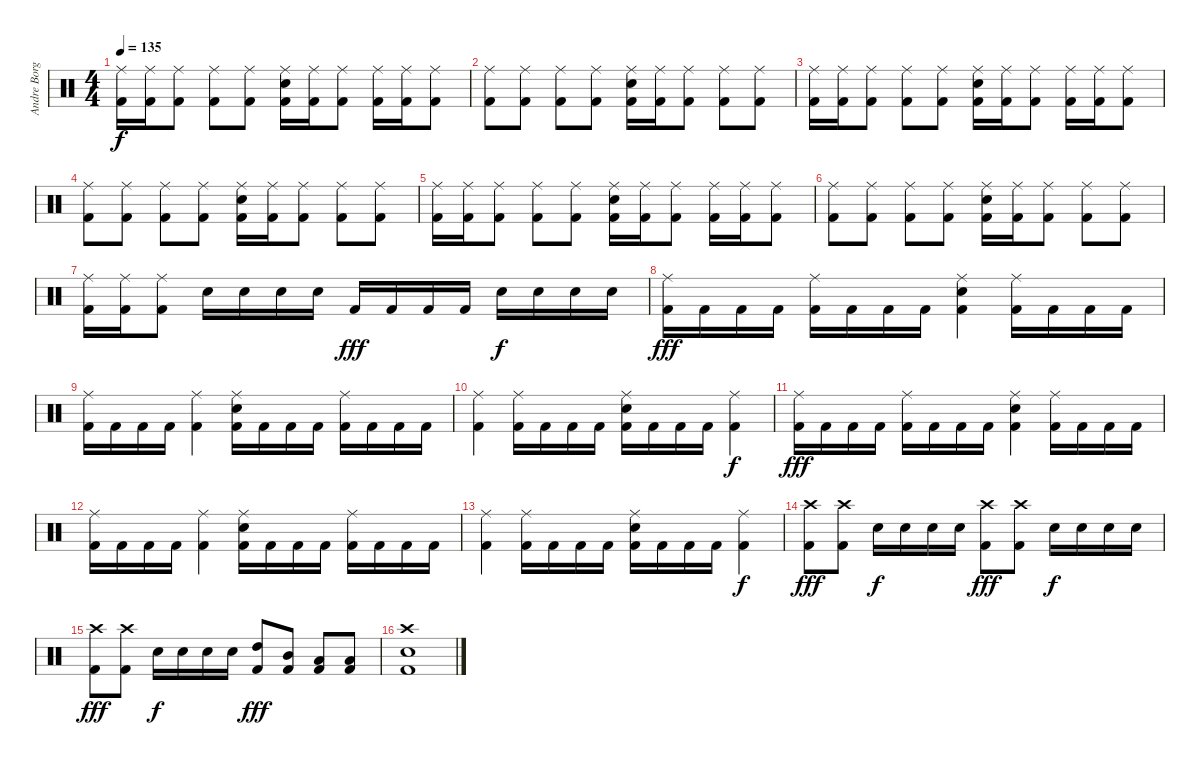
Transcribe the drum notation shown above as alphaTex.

\track ("Andre Borgman" "Andre Borg") {instrument percussion}
\staff {score}
\articulation defaults
\ts (4 4)
\tempo 135
\clef neutral
\ks c
("Ride (middle)" "Kick (hit) 2").16{dy f} ("Ride (middle)" "Kick (hit) 2").16 ("Ride (middle)" "Kick (hit) 2").8 ("Ride (middle)" "Kick (hit) 2").8 ("Ride (middle)" "Kick (hit) 2").8 ("Ride (middle)" "Snare (hit) 2" "Kick (hit) 2").16 ("Ride (middle)" "Kick (hit) 2").16 ("Ride (middle)" "Kick (hit) 2").8 ("Ride (middle)" "Kick (hit) 2").16 ("Ride (middle)" "Kick (hit) 2").16 ("Ride (middle)" "Kick (hit) 2").8 |
("Ride (middle)" "Kick (hit) 2").8 ("Ride (middle)" "Kick (hit) 2").8 ("Ride (middle)" "Kick (hit) 2").8 ("Ride (middle)" "Kick (hit) 2").8 ("Ride (middle)" "Snare (hit) 2" "Kick (hit) 2").16 ("Ride (middle)" "Kick (hit) 2").16 ("Ride (middle)" "Kick (hit) 2").8 ("Ride (middle)" "Kick (hit) 2").8 ("Ride (middle)" "Kick (hit) 2").8 |
("Ride (middle)" "Kick (hit) 2").16 ("Ride (middle)" "Kick (hit) 2").16 ("Ride (middle)" "Kick (hit) 2").8 ("Ride (middle)" "Kick (hit) 2").8 ("Ride (middle)" "Kick (hit) 2").8 ("Ride (middle)" "Snare (hit) 2" "Kick (hit) 2").16 ("Ride (middle)" "Kick (hit) 2").16 ("Ride (middle)" "Kick (hit) 2").8 ("Ride (middle)" "Kick (hit) 2").16 ("Ride (middle)" "Kick (hit) 2").16 ("Ride (middle)" "Kick (hit) 2").8 |
("Ride (middle)" "Kick (hit) 2").8 ("Ride (middle)" "Kick (hit) 2").8 ("Ride (middle)" "Kick (hit) 2").8 ("Ride (middle)" "Kick (hit) 2").8 ("Ride (middle)" "Snare (hit) 2" "Kick (hit) 2").16 ("Ride (middle)" "Kick (hit) 2").16 ("Ride (middle)" "Kick (hit) 2").8 ("Ride (middle)" "Kick (hit) 2").8 ("Ride (middle)" "Kick (hit) 2").8 |
("Ride (middle)" "Kick (hit) 2").16 ("Ride (middle)" "Kick (hit) 2").16 ("Ride (middle)" "Kick (hit) 2").8 ("Ride (middle)" "Kick (hit) 2").8 ("Ride (middle)" "Kick (hit) 2").8 ("Ride (middle)" "Snare (hit) 2" "Kick (hit) 2").16 ("Ride (middle)" "Kick (hit) 2").16 ("Ride (middle)" "Kick (hit) 2").8 ("Ride (middle)" "Kick (hit) 2").16 ("Ride (middle)" "Kick (hit) 2").16 ("Ride (middle)" "Kick (hit) 2").8 |
("Ride (middle)" "Kick (hit) 2").8 ("Ride (middle)" "Kick (hit) 2").8 ("Ride (middle)" "Kick (hit) 2").8 ("Ride (middle)" "Kick (hit) 2").8 ("Ride (middle)" "Snare (hit) 2" "Kick (hit) 2").16 ("Ride (middle)" "Kick (hit) 2").16 ("Ride (middle)" "Kick (hit) 2").8 ("Ride (middle)" "Kick (hit) 2").8 ("Ride (middle)" "Kick (hit) 2").8 |
("Ride (middle)" "Kick (hit) 2").16 ("Ride (middle)" "Kick (hit) 2").16 ("Ride (middle)" "Kick (hit) 2").8 "Snare (hit) 2".16 "Snare (hit) 2".16 "Snare (hit) 2".16 "Snare (hit) 2".16 "Kick (hit) 2".16{dy fff} "Kick (hit) 2".16 "Kick (hit) 2".16 "Kick (hit) 2".16 "Snare (hit) 2".16{dy f} "Snare (hit) 2".16 "Snare (hit) 2".16 "Snare (hit) 2".16 |
("Ride (middle)" "Kick (hit) 2").16{dy fff} "Kick (hit) 2".16 "Kick (hit) 2".16 "Kick (hit) 2".16 ("Ride (middle)" "Kick (hit) 2").16 "Kick (hit) 2".16 "Kick (hit) 2".16 "Kick (hit) 2".16 ("Ride (middle)" "Snare (hit) 2" "Kick (hit) 2").4 ("Ride (middle)" "Kick (hit) 2").16 "Kick (hit) 2".16 "Kick (hit) 2".16 "Kick (hit) 2".16 |
("Ride (middle)" "Kick (hit) 2").16 "Kick (hit) 2".16 "Kick (hit) 2".16 "Kick (hit) 2".16 ("Ride (middle)" "Kick (hit) 2").4 ("Ride (middle)" "Snare (hit) 2" "Kick (hit) 2").16 "Kick (hit) 2".16 "Kick (hit) 2".16 "Kick (hit) 2".16 ("Ride (middle)" "Kick (hit) 2").16 "Kick (hit) 2".16 "Kick (hit) 2".16 "Kick (hit) 2".16 |
("Ride (middle)" "Kick (hit) 2").4 ("Ride (middle)" "Kick (hit) 2").16 "Kick (hit) 2".16 "Kick (hit) 2".16 "Kick (hit) 2".16 ("Ride (middle)" "Snare (hit) 2" "Kick (hit) 2").16 "Kick (hit) 2".16 "Kick (hit) 2".16 "Kick (hit) 2".16 ("Ride (middle)" "Kick (hit) 2").4{dy f} |
("Ride (middle)" "Kick (hit) 2").16{dy fff} "Kick (hit) 2".16 "Kick (hit) 2".16 "Kick (hit) 2".16 ("Ride (middle)" "Kick (hit) 2").16 "Kick (hit) 2".16 "Kick (hit) 2".16 "Kick (hit) 2".16 ("Ride (middle)" "Snare (hit) 2" "Kick (hit) 2").4 ("Ride (middle)" "Kick (hit) 2").16 "Kick (hit) 2".16 "Kick (hit) 2".16 "Kick (hit) 2".16 |
("Ride (middle)" "Kick (hit) 2").16 "Kick (hit) 2".16 "Kick (hit) 2".16 "Kick (hit) 2".16 ("Ride (middle)" "Kick (hit) 2").4 ("Ride (middle)" "Snare (hit) 2" "Kick (hit) 2").16 "Kick (hit) 2".16 "Kick (hit) 2".16 "Kick (hit) 2".16 ("Ride (middle)" "Kick (hit) 2").16 "Kick (hit) 2".16 "Kick (hit) 2".16 "Kick (hit) 2".16 |
("Ride (middle)" "Kick (hit) 2").4 ("Ride (middle)" "Kick (hit) 2").16 "Kick (hit) 2".16 "Kick (hit) 2".16 "Kick (hit) 2".16 ("Ride (middle)" "Snare (hit) 2" "Kick (hit) 2").16 "Kick (hit) 2".16 "Kick (hit) 2".16 "Kick (hit) 2".16 ("Ride (middle)" "Kick (hit) 2").4{dy f} |
("Crash high (hit)" "Kick (hit) 2").8{dy fff} ("Crash high (hit)" "Kick (hit) 2").8 "Snare (hit) 2".16{dy f} "Snare (hit) 2".16 "Snare (hit) 2".16 "Snare (hit) 2".16 ("Crash high (hit)" "Kick (hit) 2").8{dy fff} ("Crash high (hit)" "Kick (hit) 2").8 "Snare (hit) 2".16{dy f} "Snare (hit) 2".16 "Snare (hit) 2".16 "Snare (hit) 2".16 |
("Crash high (hit)" "Kick (hit) 2").8{dy fff} ("Crash high (hit)" "Kick (hit) 2").8 "Snare (hit) 2".16{dy f} "Snare (hit) 2".16 "Snare (hit) 2".16 "Snare (hit) 2".16 ("High Tom (hit)" "Kick (hit) 2").8{dy fff} ("Mid Tom (hit)" "Kick (hit) 2").8 ("Low Tom (hit)" "Kick (hit) 2").8 ("Low Tom (hit)" "Kick (hit) 2").8 |
("Crash high (hit)" "Snare (hit) 2" "Kick (hit) 2").1{volume 4}
